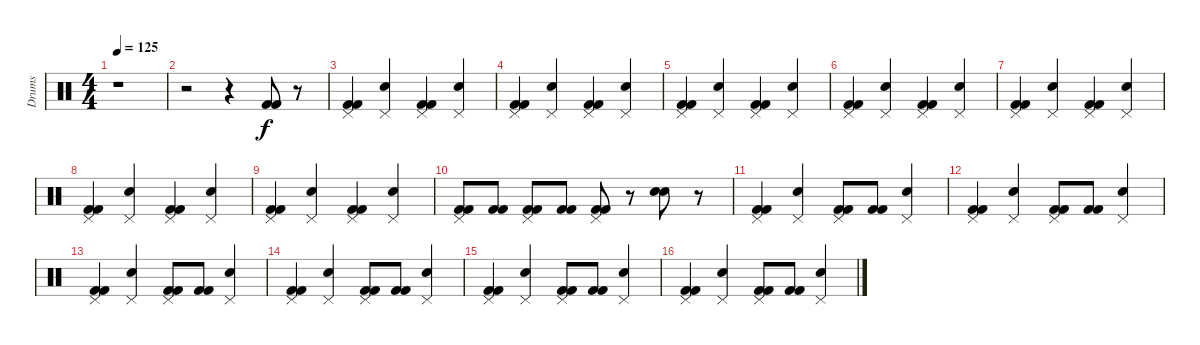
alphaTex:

\track ("Drums" "Drums") {instrument percussion}
\staff {score}
\articulation defaults
\ts (4 4)
\tempo 125
\clef neutral
\ks c
r.1{dy f} |
r.2 r.4 ("Kick (hit) 2" "Kick (hit) 2").8 r.8 |
("Pedal Hi-Hat (hit)" "Kick (hit) 2" "Kick (hit) 2").4 ("Pedal Hi-Hat (hit)" "Snare (hit) 2").4 ("Pedal Hi-Hat (hit)" "Kick (hit) 2" "Kick (hit) 2").4 ("Pedal Hi-Hat (hit)" "Snare (hit) 2").4 |
("Pedal Hi-Hat (hit)" "Kick (hit) 2" "Kick (hit) 2").4 ("Pedal Hi-Hat (hit)" "Snare (hit) 2").4 ("Pedal Hi-Hat (hit)" "Kick (hit) 2" "Kick (hit) 2").4 ("Pedal Hi-Hat (hit)" "Snare (hit) 2").4 |
("Pedal Hi-Hat (hit)" "Kick (hit) 2" "Kick (hit) 2").4 ("Pedal Hi-Hat (hit)" "Snare (hit) 2").4 ("Pedal Hi-Hat (hit)" "Kick (hit) 2" "Kick (hit) 2").4 ("Pedal Hi-Hat (hit)" "Snare (hit) 2").4 |
("Pedal Hi-Hat (hit)" "Kick (hit) 2" "Kick (hit) 2").4 ("Pedal Hi-Hat (hit)" "Snare (hit) 2").4 ("Pedal Hi-Hat (hit)" "Kick (hit) 2" "Kick (hit) 2").4 ("Pedal Hi-Hat (hit)" "Snare (hit) 2").4 |
("Pedal Hi-Hat (hit)" "Kick (hit) 2" "Kick (hit) 2").4 ("Pedal Hi-Hat (hit)" "Snare (hit) 2").4 ("Pedal Hi-Hat (hit)" "Kick (hit) 2" "Kick (hit) 2").4 ("Pedal Hi-Hat (hit)" "Snare (hit) 2").4 |
("Pedal Hi-Hat (hit)" "Kick (hit) 2" "Kick (hit) 2").4 ("Pedal Hi-Hat (hit)" "Snare (hit) 2").4 ("Pedal Hi-Hat (hit)" "Kick (hit) 2" "Kick (hit) 2").4 ("Pedal Hi-Hat (hit)" "Snare (hit) 2").4 |
("Pedal Hi-Hat (hit)" "Kick (hit) 2" "Kick (hit) 2").4 ("Pedal Hi-Hat (hit)" "Snare (hit) 2").4 ("Pedal Hi-Hat (hit)" "Kick (hit) 2" "Kick (hit) 2").4 ("Pedal Hi-Hat (hit)" "Snare (hit) 2").4 |
("Pedal Hi-Hat (hit)" "Kick (hit) 2" "Kick (hit) 2").8 ("Kick (hit) 2" "Kick (hit) 2").8 ("Pedal Hi-Hat (hit)" "Kick (hit) 2" "Kick (hit) 2").8 ("Kick (hit) 2" "Kick (hit) 2").8 ("Pedal Hi-Hat (hit)" "Kick (hit) 2" "Kick (hit) 2").8 r.8 ("Hand Clap (hit)" "Snare (hit) 2").8 r.8 |
("Pedal Hi-Hat (hit)" "Kick (hit) 2" "Kick (hit) 2").4 ("Pedal Hi-Hat (hit)" "Snare (hit) 2").4 ("Pedal Hi-Hat (hit)" "Kick (hit) 2" "Kick (hit) 2").8 ("Kick (hit) 2" "Kick (hit) 2").8 ("Pedal Hi-Hat (hit)" "Snare (hit) 2").4 |
("Pedal Hi-Hat (hit)" "Kick (hit) 2" "Kick (hit) 2").4 ("Pedal Hi-Hat (hit)" "Snare (hit) 2").4 ("Pedal Hi-Hat (hit)" "Kick (hit) 2" "Kick (hit) 2").8 ("Kick (hit) 2" "Kick (hit) 2").8 ("Pedal Hi-Hat (hit)" "Snare (hit) 2").4 |
("Pedal Hi-Hat (hit)" "Kick (hit) 2" "Kick (hit) 2").4 ("Pedal Hi-Hat (hit)" "Snare (hit) 2").4 ("Pedal Hi-Hat (hit)" "Kick (hit) 2" "Kick (hit) 2").8 ("Kick (hit) 2" "Kick (hit) 2").8 ("Pedal Hi-Hat (hit)" "Snare (hit) 2").4 |
("Pedal Hi-Hat (hit)" "Kick (hit) 2" "Kick (hit) 2").4 ("Pedal Hi-Hat (hit)" "Snare (hit) 2").4 ("Pedal Hi-Hat (hit)" "Kick (hit) 2" "Kick (hit) 2").8 ("Kick (hit) 2" "Kick (hit) 2").8 ("Pedal Hi-Hat (hit)" "Snare (hit) 2").4 |
("Pedal Hi-Hat (hit)" "Kick (hit) 2" "Kick (hit) 2").4 ("Pedal Hi-Hat (hit)" "Snare (hit) 2").4 ("Pedal Hi-Hat (hit)" "Kick (hit) 2" "Kick (hit) 2").8 ("Kick (hit) 2" "Kick (hit) 2").8 ("Pedal Hi-Hat (hit)" "Snare (hit) 2").4 |
("Pedal Hi-Hat (hit)" "Kick (hit) 2" "Kick (hit) 2").4 ("Pedal Hi-Hat (hit)" "Snare (hit) 2").4 ("Pedal Hi-Hat (hit)" "Kick (hit) 2" "Kick (hit) 2").8 ("Kick (hit) 2" "Kick (hit) 2").8 ("Pedal Hi-Hat (hit)" "Snare (hit) 2").4
